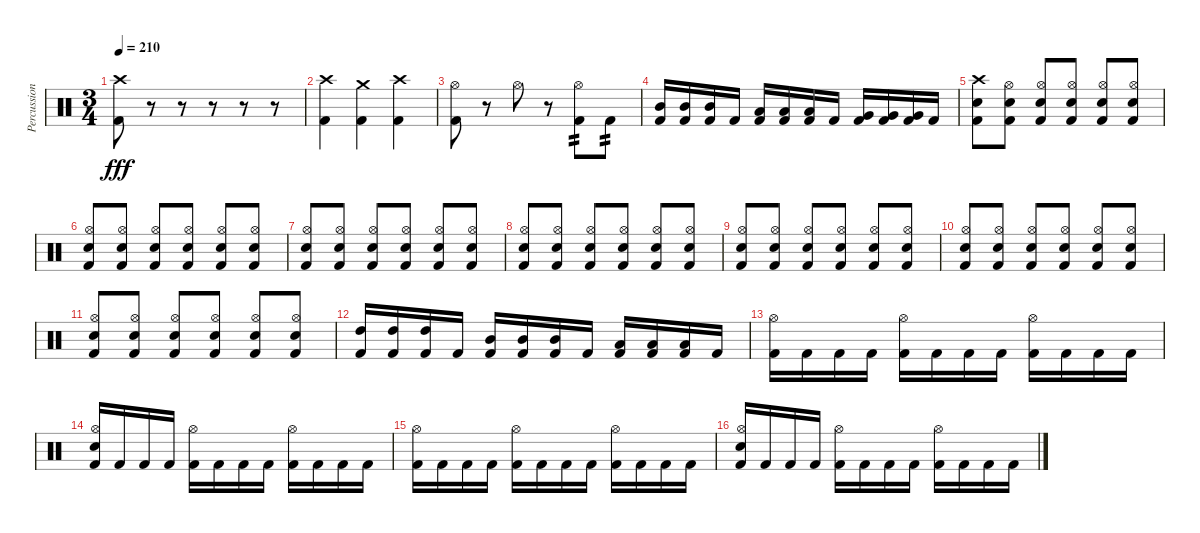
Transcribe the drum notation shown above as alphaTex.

\track ("Percussion" "Percussion") {instrument percussion}
\staff {score}
\articulation defaults
\ts (3 4)
\tempo 210
\clef neutral
\ks c
("Crash high (hit)" "Kick (hit) 2").8{dy fff volume 0} r.8 r.8 r.8 r.8 r.8 |
("Crash high (hit)" "Kick (hit) 2").4{volume 16} ("Crash medium (hit)" "Kick (hit) 2").4 ("Crash high (hit)" "Kick (hit) 2").4 |
("Hi-Hat (open)" "Kick (hit) 2").8 r.8 "Hi-Hat (open)".8 r.8 ("Hi-Hat (open)" "Kick (hit) 2").8{tp 2} "Kick (hit) 2".8{tp 2} |
("Mid Tom (hit)" "Kick (hit) 2").16 ("Mid Tom (hit)" "Kick (hit) 2").16 ("Mid Tom (hit)" "Kick (hit) 2").16 "Kick (hit) 2".16 ("Low Tom (hit)" "Kick (hit) 2").16 ("Low Tom (hit)" "Kick (hit) 2").16 ("Low Tom (hit)" "Kick (hit) 2").16 "Kick (hit) 2".16 ("Very Low Tom (hit)" "Kick (hit) 2").16 ("Very Low Tom (hit)" "Kick (hit) 2").16 ("Very Low Tom (hit)" "Kick (hit) 2").16 "Kick (hit) 2".16 |
("Crash high (hit)" "Electric Snare (hit)" "Kick (hit) 2").8 ("Hi-Hat (open)" "Electric Snare (hit)" "Kick (hit) 2").8 ("Hi-Hat (open)" "Electric Snare (hit)" "Kick (hit) 2").8 ("Hi-Hat (open)" "Electric Snare (hit)" "Kick (hit) 2").8 ("Hi-Hat (open)" "Electric Snare (hit)" "Kick (hit) 2").8 ("Hi-Hat (open)" "Electric Snare (hit)" "Kick (hit) 2").8 |
("Hi-Hat (open)" "Electric Snare (hit)" "Kick (hit) 2").8 ("Hi-Hat (open)" "Electric Snare (hit)" "Kick (hit) 2").8 ("Hi-Hat (open)" "Electric Snare (hit)" "Kick (hit) 2").8 ("Hi-Hat (open)" "Electric Snare (hit)" "Kick (hit) 2").8 ("Hi-Hat (open)" "Electric Snare (hit)" "Kick (hit) 2").8 ("Hi-Hat (open)" "Electric Snare (hit)" "Kick (hit) 2").8 |
("Hi-Hat (open)" "Electric Snare (hit)" "Kick (hit) 2").8 ("Hi-Hat (open)" "Electric Snare (hit)" "Kick (hit) 2").8 ("Hi-Hat (open)" "Electric Snare (hit)" "Kick (hit) 2").8 ("Hi-Hat (open)" "Electric Snare (hit)" "Kick (hit) 2").8 ("Hi-Hat (open)" "Electric Snare (hit)" "Kick (hit) 2").8 ("Hi-Hat (open)" "Electric Snare (hit)" "Kick (hit) 2").8 |
("Hi-Hat (open)" "Electric Snare (hit)" "Kick (hit) 2").8 ("Hi-Hat (open)" "Electric Snare (hit)" "Kick (hit) 2").8 ("Hi-Hat (open)" "Electric Snare (hit)" "Kick (hit) 2").8 ("Hi-Hat (open)" "Electric Snare (hit)" "Kick (hit) 2").8 ("Hi-Hat (open)" "Electric Snare (hit)" "Kick (hit) 2").8 ("Hi-Hat (open)" "Electric Snare (hit)" "Kick (hit) 2").8 |
("Hi-Hat (open)" "Electric Snare (hit)" "Kick (hit) 2").8 ("Hi-Hat (open)" "Electric Snare (hit)" "Kick (hit) 2").8 ("Hi-Hat (open)" "Electric Snare (hit)" "Kick (hit) 2").8 ("Hi-Hat (open)" "Electric Snare (hit)" "Kick (hit) 2").8 ("Hi-Hat (open)" "Electric Snare (hit)" "Kick (hit) 2").8 ("Hi-Hat (open)" "Electric Snare (hit)" "Kick (hit) 2").8 |
("Hi-Hat (open)" "Electric Snare (hit)" "Kick (hit) 2").8 ("Hi-Hat (open)" "Electric Snare (hit)" "Kick (hit) 2").8 ("Hi-Hat (open)" "Electric Snare (hit)" "Kick (hit) 2").8 ("Hi-Hat (open)" "Electric Snare (hit)" "Kick (hit) 2").8 ("Hi-Hat (open)" "Electric Snare (hit)" "Kick (hit) 2").8 ("Hi-Hat (open)" "Electric Snare (hit)" "Kick (hit) 2").8 |
("Hi-Hat (open)" "Electric Snare (hit)" "Kick (hit) 2").8 ("Hi-Hat (open)" "Electric Snare (hit)" "Kick (hit) 2").8 ("Hi-Hat (open)" "Electric Snare (hit)" "Kick (hit) 2").8 ("Hi-Hat (open)" "Electric Snare (hit)" "Kick (hit) 2").8 ("Hi-Hat (open)" "Electric Snare (hit)" "Kick (hit) 2").8 ("Hi-Hat (open)" "Electric Snare (hit)" "Kick (hit) 2").8 |
("High Tom (hit)" "Kick (hit) 2").16 ("High Tom (hit)" "Kick (hit) 2").16 ("High Tom (hit)" "Kick (hit) 2").16 "Kick (hit) 2".16 ("Mid Tom (hit)" "Kick (hit) 2").16 ("Mid Tom (hit)" "Kick (hit) 2").16 ("Mid Tom (hit)" "Kick (hit) 2").16 "Kick (hit) 2".16 ("Low Tom (hit)" "Kick (hit) 2").16 ("Low Tom (hit)" "Kick (hit) 2").16 ("Low Tom (hit)" "Kick (hit) 2").16 "Kick (hit) 2".16 |
("Hi-Hat (open)" "Kick (hit) 2").16 "Kick (hit) 2".16 "Kick (hit) 2".16 "Kick (hit) 2".16 ("Hi-Hat (open)" "Kick (hit) 2").16 "Kick (hit) 2".16 "Kick (hit) 2".16 "Kick (hit) 2".16 ("Hi-Hat (open)" "Kick (hit) 2").16 "Kick (hit) 2".16 "Kick (hit) 2".16 "Kick (hit) 2".16 |
("Hi-Hat (open)" "Electric Snare (hit)" "Kick (hit) 2").16 "Kick (hit) 2".16 "Kick (hit) 2".16 "Kick (hit) 2".16 ("Hi-Hat (open)" "Kick (hit) 2").16 "Kick (hit) 2".16 "Kick (hit) 2".16 "Kick (hit) 2".16 ("Hi-Hat (open)" "Kick (hit) 2").16 "Kick (hit) 2".16 "Kick (hit) 2".16 "Kick (hit) 2".16 |
("Hi-Hat (open)" "Kick (hit) 2").16 "Kick (hit) 2".16 "Kick (hit) 2".16 "Kick (hit) 2".16 ("Hi-Hat (open)" "Kick (hit) 2").16 "Kick (hit) 2".16 "Kick (hit) 2".16 "Kick (hit) 2".16 ("Hi-Hat (open)" "Kick (hit) 2").16 "Kick (hit) 2".16 "Kick (hit) 2".16 "Kick (hit) 2".16 |
("Hi-Hat (open)" "Electric Snare (hit)" "Kick (hit) 2").16 "Kick (hit) 2".16 "Kick (hit) 2".16 "Kick (hit) 2".16 ("Hi-Hat (open)" "Kick (hit) 2").16 "Kick (hit) 2".16 "Kick (hit) 2".16 "Kick (hit) 2".16 ("Hi-Hat (open)" "Kick (hit) 2").16 "Kick (hit) 2".16 "Kick (hit) 2".16 "Kick (hit) 2".16
